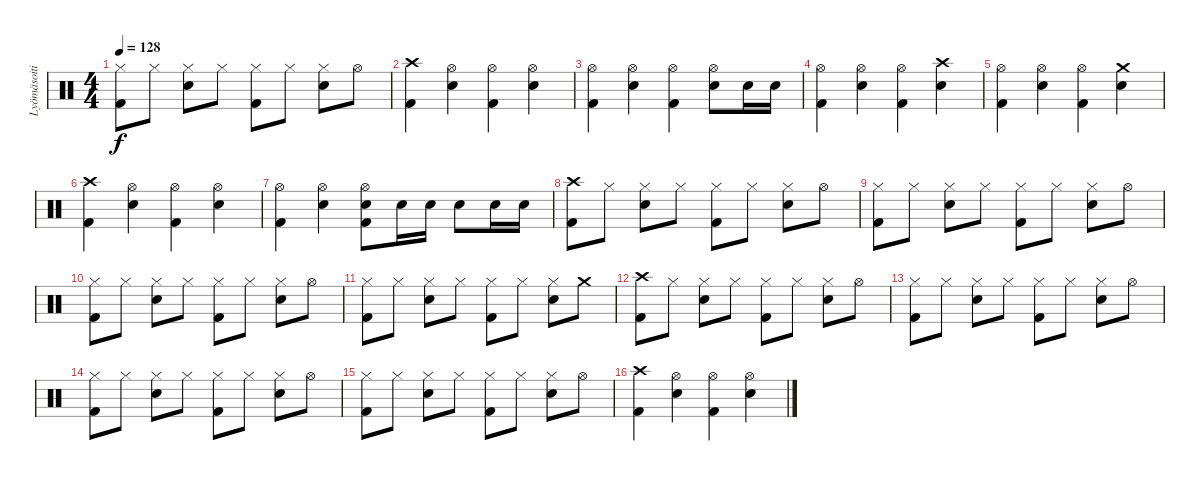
\track ("Lyömäsoitin" "Lyömäsoiti") {instrument percussion}
\staff {score}
\articulation defaults
\ts (4 4)
\tempo 128
\clef neutral
\ks c
("Hi-Hat (closed)" "Kick (hit) 2").8{dy f} "Hi-Hat (closed)".8 ("Hi-Hat (closed)" "Electric Snare (hit)").8 "Hi-Hat (closed)".8 ("Hi-Hat (closed)" "Kick (hit) 2").8 "Hi-Hat (closed)".8 ("Hi-Hat (closed)" "Electric Snare (hit)").8 "Hi-Hat (open)".8 |
("Crash high (hit)" "Kick (hit) 2").4 ("Hi-Hat (open)" "Electric Snare (hit)").4 ("Hi-Hat (open)" "Kick (hit) 2").4 ("Hi-Hat (open)" "Electric Snare (hit)").4 |
("Hi-Hat (open)" "Kick (hit) 2").4 ("Hi-Hat (open)" "Electric Snare (hit)").4 ("Hi-Hat (open)" "Kick (hit) 2").4 ("Hi-Hat (open)" "Electric Snare (hit)").8 "Electric Snare (hit)".16 "Electric Snare (hit)".16 |
("Hi-Hat (open)" "Kick (hit) 2").4 ("Hi-Hat (open)" "Electric Snare (hit)").4 ("Hi-Hat (open)" "Kick (hit) 2").4 ("Crash high (hit)" "Electric Snare (hit)").4 |
("Hi-Hat (open)" "Kick (hit) 2").4 ("Hi-Hat (open)" "Electric Snare (hit)").4 ("Hi-Hat (open)" "Kick (hit) 2").4 ("Crash medium (hit)" "Electric Snare (hit)").4 |
("Crash high (hit)" "Kick (hit) 2").4 ("Hi-Hat (open)" "Electric Snare (hit)").4 ("Hi-Hat (open)" "Kick (hit) 2").4 ("Hi-Hat (open)" "Electric Snare (hit)").4 |
("Hi-Hat (open)" "Kick (hit) 2").4 ("Hi-Hat (open)" "Electric Snare (hit)").4 ("Hi-Hat (open)" "Electric Snare (hit)" "Kick (hit) 2").8 "Electric Snare (hit)".16 "Electric Snare (hit)".16 "Electric Snare (hit)".8 "Electric Snare (hit)".16 "Electric Snare (hit)".16 |
("Crash high (hit)" "Kick (hit) 2").8 "Hi-Hat (closed)".8 ("Hi-Hat (closed)" "Electric Snare (hit)").8 "Hi-Hat (closed)".8 ("Hi-Hat (closed)" "Kick (hit) 2").8 "Hi-Hat (closed)".8 ("Hi-Hat (closed)" "Electric Snare (hit)").8 "Hi-Hat (open)".8 |
("Hi-Hat (closed)" "Kick (hit) 2").8 "Hi-Hat (closed)".8 ("Hi-Hat (closed)" "Electric Snare (hit)").8 "Hi-Hat (closed)".8 ("Hi-Hat (closed)" "Kick (hit) 2").8 "Hi-Hat (closed)".8 ("Hi-Hat (closed)" "Electric Snare (hit)").8 "Hi-Hat (open)".8 |
("Hi-Hat (closed)" "Kick (hit) 2").8 "Hi-Hat (closed)".8 ("Hi-Hat (closed)" "Electric Snare (hit)").8 "Hi-Hat (closed)".8 ("Hi-Hat (closed)" "Kick (hit) 2").8 "Hi-Hat (closed)".8 ("Hi-Hat (closed)" "Electric Snare (hit)").8 "Hi-Hat (open)".8 |
("Hi-Hat (closed)" "Kick (hit) 2").8 "Hi-Hat (closed)".8 ("Hi-Hat (closed)" "Electric Snare (hit)").8 "Hi-Hat (closed)".8 ("Hi-Hat (closed)" "Kick (hit) 2").8 "Hi-Hat (closed)".8 ("Hi-Hat (closed)" "Electric Snare (hit)").8 "Crash medium (hit)".8 |
("Crash high (hit)" "Kick (hit) 2").8 "Hi-Hat (closed)".8 ("Hi-Hat (closed)" "Electric Snare (hit)").8 "Hi-Hat (closed)".8 ("Hi-Hat (closed)" "Kick (hit) 2").8 "Hi-Hat (closed)".8 ("Hi-Hat (closed)" "Electric Snare (hit)").8 "Hi-Hat (open)".8 |
("Hi-Hat (closed)" "Kick (hit) 2").8 "Hi-Hat (closed)".8 ("Hi-Hat (closed)" "Electric Snare (hit)").8 "Hi-Hat (closed)".8 ("Hi-Hat (closed)" "Kick (hit) 2").8 "Hi-Hat (closed)".8 ("Hi-Hat (closed)" "Electric Snare (hit)").8 "Hi-Hat (open)".8 |
("Hi-Hat (closed)" "Kick (hit) 2").8 "Hi-Hat (closed)".8 ("Hi-Hat (closed)" "Electric Snare (hit)").8 "Hi-Hat (closed)".8 ("Hi-Hat (closed)" "Kick (hit) 2").8 "Hi-Hat (closed)".8 ("Hi-Hat (closed)" "Electric Snare (hit)").8 "Hi-Hat (open)".8 |
("Hi-Hat (closed)" "Kick (hit) 2").8 "Hi-Hat (closed)".8 ("Hi-Hat (closed)" "Electric Snare (hit)").8 "Hi-Hat (closed)".8 ("Hi-Hat (closed)" "Kick (hit) 2").8 "Hi-Hat (closed)".8 ("Hi-Hat (closed)" "Electric Snare (hit)").8 "Hi-Hat (open)".8 |
("Crash high (hit)" "Kick (hit) 2").4 ("Hi-Hat (open)" "Electric Snare (hit)").4 ("Hi-Hat (open)" "Kick (hit) 2").4 ("Hi-Hat (open)" "Electric Snare (hit)").4
